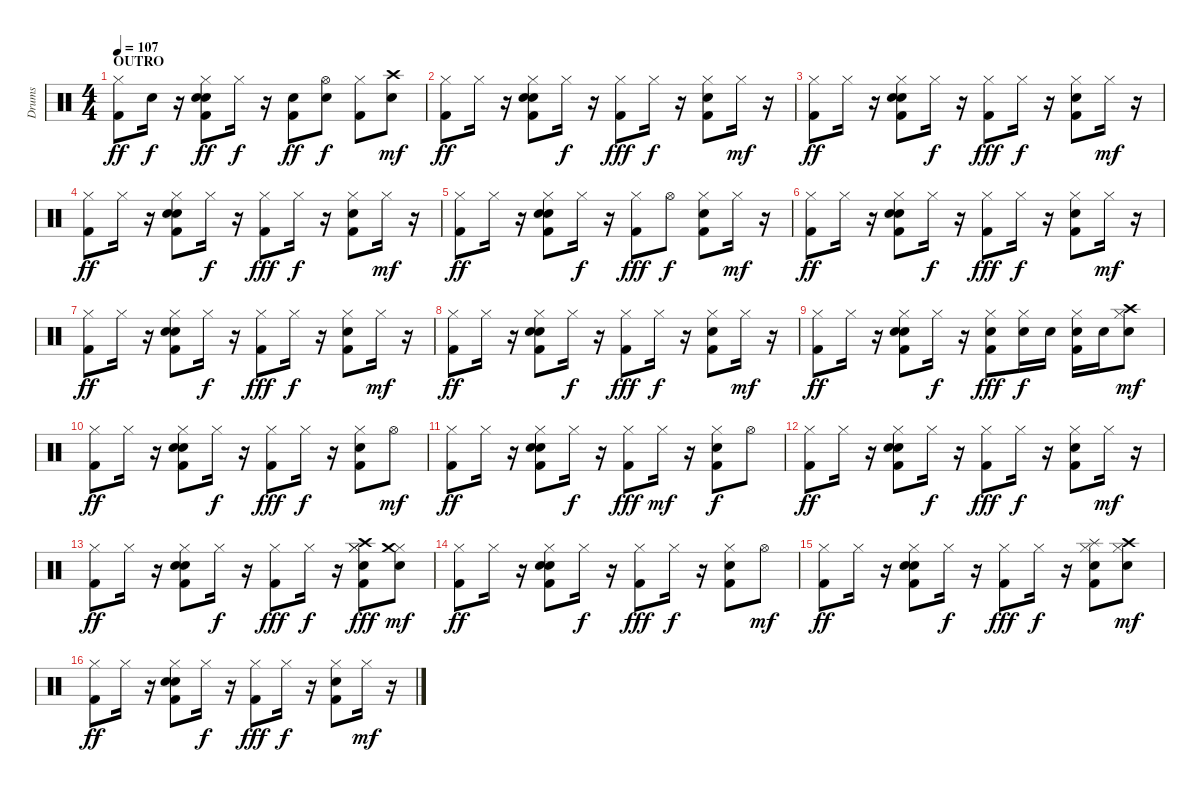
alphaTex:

\track ("Drums" "Drums") {instrument percussion}
\staff {score}
\articulation defaults
\ts (4 4)
\section ("" "OUTRO")
\tempo 107
\clef neutral
\ks c
("Kick (hit) 2" "Hi-Hat (closed)").8{dy ff} "Electric Snare (hit)".16{dy f} r.16 ("Kick (hit) 2" "Electric Snare (hit)" "Electric Snare (hit)" "Hi-Hat (closed)").8{dy ff} "Hi-Hat (closed)".16{dy f} r.16 ("Kick (hit) 2" "Electric Snare (hit)").8{dy ff} ("Electric Snare (hit)" "Hi-Hat (open)").8{dy f} ("Kick (hit) 2" "Hi-Hat (closed)").8 ("Electric Snare (hit)" "Crash high (hit)").8{dy mf} |
("Kick (hit) 2" "Hi-Hat (closed)").8{dy ff} "Hi-Hat (closed)".16 r.16 ("Kick (hit) 2" "Electric Snare (hit)" "Electric Snare (hit)" "Hi-Hat (closed)").8 "Hi-Hat (closed)".16{dy f} r.16 ("Kick (hit) 2" "Hi-Hat (closed)").8{dy fff} "Hi-Hat (closed)".16{dy f} r.16 ("Kick (hit) 2" "Electric Snare (hit)" "Hi-Hat (closed)").8 "Hi-Hat (closed)".16{dy mf} r.16 |
("Kick (hit) 2" "Hi-Hat (closed)").8{dy ff} "Hi-Hat (closed)".16 r.16 ("Kick (hit) 2" "Electric Snare (hit)" "Electric Snare (hit)" "Hi-Hat (closed)").8 "Hi-Hat (closed)".16{dy f} r.16 ("Kick (hit) 2" "Hi-Hat (closed)").8{dy fff} "Hi-Hat (closed)".16{dy f} r.16 ("Kick (hit) 2" "Electric Snare (hit)" "Hi-Hat (closed)").8 "Hi-Hat (closed)".16{dy mf} r.16 |
("Kick (hit) 2" "Hi-Hat (closed)").8{dy ff} "Hi-Hat (closed)".16 r.16 ("Kick (hit) 2" "Electric Snare (hit)" "Electric Snare (hit)" "Hi-Hat (closed)").8 "Hi-Hat (closed)".16{dy f} r.16 ("Kick (hit) 2" "Hi-Hat (closed)").8{dy fff} "Hi-Hat (closed)".16{dy f} r.16 ("Kick (hit) 2" "Electric Snare (hit)" "Hi-Hat (closed)").8 "Hi-Hat (closed)".16{dy mf} r.16 |
("Kick (hit) 2" "Hi-Hat (closed)").8{dy ff} "Hi-Hat (closed)".16 r.16 ("Kick (hit) 2" "Electric Snare (hit)" "Electric Snare (hit)" "Hi-Hat (closed)").8 "Hi-Hat (closed)".16{dy f} r.16 ("Kick (hit) 2" "Hi-Hat (closed)").8{dy fff} "Hi-Hat (open)".8{dy f} ("Kick (hit) 2" "Electric Snare (hit)" "Hi-Hat (closed)").8 "Hi-Hat (closed)".16{dy mf} r.16 |
("Kick (hit) 2" "Hi-Hat (closed)").8{dy ff} "Hi-Hat (closed)".16 r.16 ("Kick (hit) 2" "Electric Snare (hit)" "Electric Snare (hit)" "Hi-Hat (closed)").8 "Hi-Hat (closed)".16{dy f} r.16 ("Kick (hit) 2" "Hi-Hat (closed)").8{dy fff} "Hi-Hat (closed)".16{dy f} r.16 ("Kick (hit) 2" "Electric Snare (hit)" "Hi-Hat (closed)").8 "Hi-Hat (closed)".16{dy mf} r.16 |
("Kick (hit) 2" "Hi-Hat (closed)").8{dy ff} "Hi-Hat (closed)".16 r.16 ("Kick (hit) 2" "Electric Snare (hit)" "Electric Snare (hit)" "Hi-Hat (closed)").8 "Hi-Hat (closed)".16{dy f} r.16 ("Kick (hit) 2" "Hi-Hat (closed)").8{dy fff} "Hi-Hat (closed)".16{dy f} r.16 ("Kick (hit) 2" "Electric Snare (hit)" "Hi-Hat (closed)").8 "Hi-Hat (closed)".16{dy mf} r.16 |
("Kick (hit) 2" "Hi-Hat (closed)").8{dy ff} "Hi-Hat (closed)".16 r.16 ("Kick (hit) 2" "Electric Snare (hit)" "Electric Snare (hit)" "Hi-Hat (closed)").8 "Hi-Hat (closed)".16{dy f} r.16 ("Kick (hit) 2" "Hi-Hat (closed)").8{dy fff} "Hi-Hat (closed)".16{dy f} r.16 ("Kick (hit) 2" "Electric Snare (hit)" "Hi-Hat (closed)").8 "Hi-Hat (closed)".16{dy mf} r.16 |
("Kick (hit) 2" "Hi-Hat (closed)").8{dy ff} "Hi-Hat (closed)".16 r.16 ("Kick (hit) 2" "Electric Snare (hit)" "Electric Snare (hit)" "Hi-Hat (closed)").8 "Hi-Hat (closed)".16{dy f} r.16 ("Kick (hit) 2" "Electric Snare (hit)" "Hi-Hat (closed)").8{dy fff} ("Electric Snare (hit)" "Hi-Hat (closed)").16{dy f} "Electric Snare (hit)".16 ("Kick (hit) 2" "Electric Snare (hit)" "Hi-Hat (closed)").16 "Electric Snare (hit)".16 ("Electric Snare (hit)" "Hi-Hat (closed)" "Crash high (hit)").8{dy mf} |
("Kick (hit) 2" "Hi-Hat (closed)").8{dy ff} "Hi-Hat (closed)".16 r.16 ("Kick (hit) 2" "Electric Snare (hit)" "Electric Snare (hit)" "Hi-Hat (closed)").8 "Hi-Hat (closed)".16{dy f} r.16 ("Kick (hit) 2" "Hi-Hat (closed)").8{dy fff} "Hi-Hat (closed)".16{dy f} r.16 ("Kick (hit) 2" "Electric Snare (hit)" "Hi-Hat (closed)").8 "Hi-Hat (open)".8{dy mf} |
("Kick (hit) 2" "Hi-Hat (closed)").8{dy ff} "Hi-Hat (closed)".16 r.16 ("Kick (hit) 2" "Electric Snare (hit)" "Electric Snare (hit)" "Hi-Hat (closed)").8 "Hi-Hat (closed)".16{dy f} r.16 ("Kick (hit) 2" "Hi-Hat (closed)").8{dy fff} "Hi-Hat (closed)".16{dy mf} r.16 ("Kick (hit) 2" "Electric Snare (hit)" "Hi-Hat (closed)").8{dy f} "Hi-Hat (open)".8 |
("Kick (hit) 2" "Hi-Hat (closed)").8{dy ff} "Hi-Hat (closed)".16 r.16 ("Kick (hit) 2" "Electric Snare (hit)" "Electric Snare (hit)" "Hi-Hat (closed)").8 "Hi-Hat (closed)".16{dy f} r.16 ("Kick (hit) 2" "Hi-Hat (closed)").8{dy fff} "Hi-Hat (closed)".16{dy f} r.16 ("Kick (hit) 2" "Electric Snare (hit)" "Hi-Hat (closed)").8 "Hi-Hat (closed)".16{dy mf} r.16 |
("Kick (hit) 2" "Hi-Hat (closed)").8{dy ff volume 14} "Hi-Hat (closed)".16{volume 14} r.16 ("Kick (hit) 2" "Electric Snare (hit)" "Electric Snare (hit)" "Hi-Hat (closed)").8{volume 13} "Hi-Hat (closed)".16{dy f volume 13} r.16 ("Kick (hit) 2" "Hi-Hat (closed)").8{dy fff volume 13} "Hi-Hat (closed)".16{dy f volume 13} r.16 ("Kick (hit) 2" "Electric Snare (hit)" "Hi-Hat (closed)" "Hi-Hat (closed)" "Crash high (hit)").8{dy fff volume 12} ("Electric Snare (hit)" "Hi-Hat (closed)" "Crash medium (hit)").8{dy mf volume 12} |
("Kick (hit) 2" "Hi-Hat (closed)").8{dy ff volume 12} "Hi-Hat (closed)".16{volume 12} r.16 ("Kick (hit) 2" "Electric Snare (hit)" "Electric Snare (hit)" "Hi-Hat (closed)").8{volume 11} "Hi-Hat (closed)".16{dy f volume 11} r.16 ("Kick (hit) 2" "Hi-Hat (closed)").8{dy fff volume 11} "Hi-Hat (closed)".16{dy f volume 11} r.16 ("Kick (hit) 2" "Electric Snare (hit)" "Hi-Hat (closed)").8{volume 10} "Hi-Hat (open)".8{dy mf volume 10} |
("Kick (hit) 2" "Hi-Hat (closed)").8{dy ff volume 10} "Hi-Hat (closed)".16{volume 10} r.16 ("Kick (hit) 2" "Electric Snare (hit)" "Electric Snare (hit)" "Hi-Hat (closed)").8{volume 10 balance 7} "Hi-Hat (closed)".16{dy f volume 9 balance 6} r.16 ("Kick (hit) 2" "Hi-Hat (closed)").8{dy fff volume 9} "Hi-Hat (closed)".16{dy f volume 9 balance 7} r.16 ("Kick (hit) 2" "Electric Snare (hit)" "Hi-Hat (closed)" "Splash (hit)").8{volume 8} ("Electric Snare (hit)" "Hi-Hat (closed)" "Crash high (hit)").8{dy mf volume 8} |
("Kick (hit) 2" "Hi-Hat (closed)").8{dy ff volume 8} "Hi-Hat (closed)".16{volume 7} r.16 ("Kick (hit) 2" "Electric Snare (hit)" "Electric Snare (hit)" "Hi-Hat (closed)").8{volume 7} "Hi-Hat (closed)".16{dy f volume 6} r.16 ("Kick (hit) 2" "Hi-Hat (closed)").8{dy fff volume 6} "Hi-Hat (closed)".16{dy f volume 5} r.16 ("Kick (hit) 2" "Electric Snare (hit)" "Hi-Hat (closed)").8{volume 5} "Hi-Hat (closed)".16{dy mf volume 4} r.16
